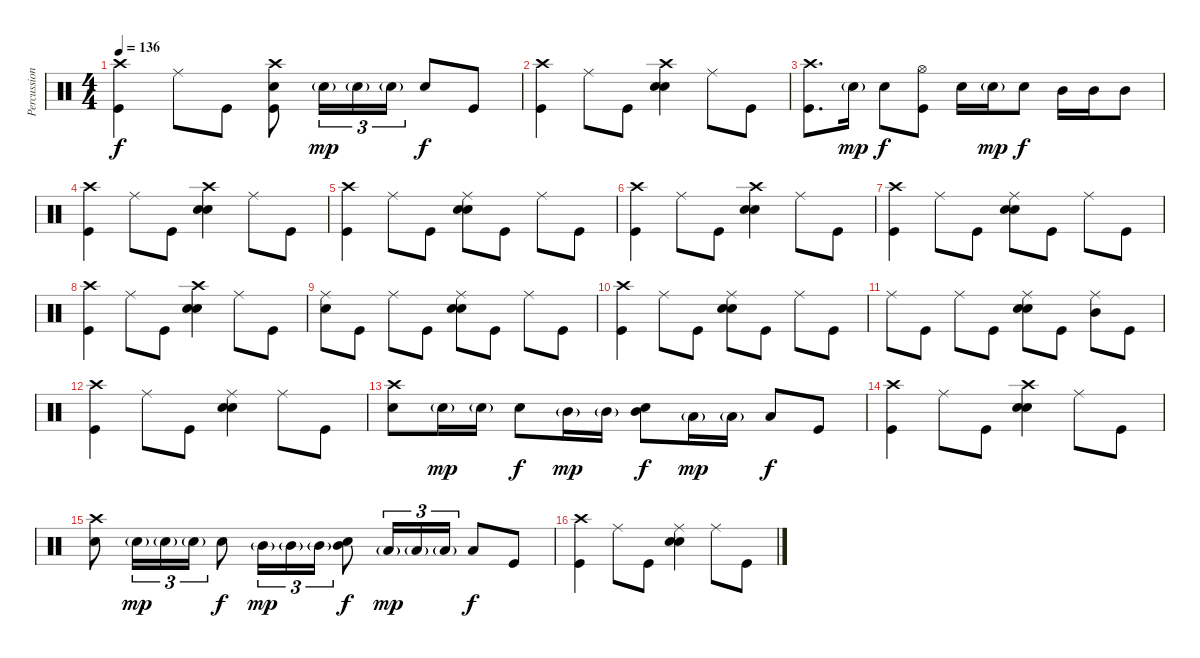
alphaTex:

\track ("Percussion" "Percussion") {instrument percussion}
\staff {score}
\articulation defaults
\ts (4 4)
\tempo 136
\clef neutral
\ks c
("Crash high (hit)" "Kick (hit)").4{dy f} "Ride (middle)".8 "Kick (hit)".8 ("Hand Clap (hit)" "Crash high (hit)" "Kick (hit)").8 "Snare (hit) 2"{g}.16{tu (3 2) dy mp} "Snare (hit) 2"{g}.16{tu (3 2)} "Snare (hit) 2"{g}.16{tu (3 2)} "Snare (hit) 2".8{dy f} "Kick (hit)".8 |
("Crash high (hit)" "Kick (hit)").4 "Ride (middle)".8 "Kick (hit)".8 ("Hand Clap (hit)" "Crash high (hit)" "Snare (hit) 2").4 "Ride (middle)".8 "Kick (hit)".8 |
("Crash high (hit)" "Kick (hit)").8{d} "Snare (hit) 2"{g}.16{dy mp} "Snare (hit) 2".8{dy f} ("Hi-Hat (open)" "Kick (hit)").8 "Hand Clap (hit)".16 "Snare (hit) 2"{g}.16{dy mp} "Snare (hit) 2".8{dy f} "Mid Tom (hit)".16 "Mid Tom (hit)".16 "Mid Tom (hit)".8 |
("Crash high (hit)" "Kick (hit)").4 "Ride (middle)".8 "Kick (hit)".8 ("Hand Clap (hit)" "Crash high (hit)" "Snare (hit) 2").4 "Ride (middle)".8 "Kick (hit)".8 |
("Crash high (hit)" "Kick (hit)").4 "Ride (middle)".8 "Kick (hit)".8 ("Hand Clap (hit)" "Ride (middle)" "Snare (hit) 2").8 "Kick (hit)".8 "Ride (middle)".8 "Kick (hit)".8 |
("Crash high (hit)" "Kick (hit)").4 "Ride (middle)".8 "Kick (hit)".8 ("Hand Clap (hit)" "Crash high (hit)" "Snare (hit) 2").4 "Ride (middle)".8 "Kick (hit)".8 |
("Crash high (hit)" "Kick (hit)").4 "Ride (middle)".8 "Kick (hit)".8 ("Hand Clap (hit)" "Ride (middle)" "Snare (hit) 2").8 "Kick (hit)".8 "Ride (middle)".8 "Kick (hit)".8 |
("Crash high (hit)" "Kick (hit)").4 "Ride (middle)".8 "Kick (hit)".8 ("Hand Clap (hit)" "Crash high (hit)" "Snare (hit) 2").4 "Ride (middle)".8 "Kick (hit)".8 |
("Ride (middle)" "Snare (hit) 2").8 "Kick (hit)".8 "Ride (middle)".8 "Kick (hit)".8 ("Hand Clap (hit)" "Ride (middle)" "Snare (hit) 2").8 "Kick (hit)".8 "Ride (middle)".8 "Kick (hit)".8 |
("Crash high (hit)" "Kick (hit)").4 "Ride (middle)".8 "Kick (hit)".8 ("Hand Clap (hit)" "Ride (middle)" "Snare (hit) 2").8 "Kick (hit)".8 "Ride (middle)".8 "Kick (hit)".8 |
"Ride (middle)".8 "Kick (hit)".8 "Ride (middle)".8 "Kick (hit)".8 ("Hand Clap (hit)" "Ride (middle)" "Snare (hit) 2").8 "Kick (hit)".8 ("Ride (middle)" "Mid Tom (hit)").8 "Kick (hit)".8 |
("Crash high (hit)" "Kick (hit)").4 "Ride (middle)".8 "Kick (hit)".8 ("Hand Clap (hit)" "Ride (middle)" "Snare (hit) 2").4 "Ride (middle)".8 "Kick (hit)".8 |
("Crash high (hit)" "Snare (hit) 2").8 "Snare (hit) 2"{g}.16{dy mp} "Snare (hit) 2"{g}.16 "Snare (hit) 2".8{dy f} "Mid Tom (hit)"{g}.16{dy mp} "Mid Tom (hit)"{g}.16 ("Hand Clap (hit)" "Mid Tom (hit)").8{dy f} "Low Floor Tom (hit)"{g}.16{dy mp} "Low Floor Tom (hit)"{g}.16 "Low Floor Tom (hit)".8{dy f} "Kick (hit)".8 |
("Crash high (hit)" "Kick (hit)").4 "Ride (middle)".8 "Kick (hit)".8 ("Hand Clap (hit)" "Crash high (hit)" "Snare (hit) 2").4 "Ride (middle)".8 "Kick (hit)".8 |
("Crash high (hit)" "Snare (hit) 2").8 "Snare (hit) 2"{g}.16{tu (3 2) dy mp} "Snare (hit) 2"{g}.16{tu (3 2)} "Snare (hit) 2"{g}.16{tu (3 2)} "Snare (hit) 2".8{dy f} "Mid Tom (hit)"{g}.16{tu (3 2) dy mp} "Mid Tom (hit)"{g}.16{tu (3 2)} "Mid Tom (hit)"{g}.16{tu (3 2)} ("Hand Clap (hit)" "Mid Tom (hit)").8{dy f} "Low Floor Tom (hit)"{g}.16{tu (3 2) dy mp} "Low Floor Tom (hit)"{g}.16{tu (3 2)} "Low Floor Tom (hit)"{g}.16{tu (3 2)} "Low Floor Tom (hit)".8{dy f} "Kick (hit)".8 |
("Crash high (hit)" "Kick (hit)").4 "Ride (middle)".8 "Kick (hit)".8 ("Hand Clap (hit)" "Ride (middle)" "Snare (hit) 2").4 "Ride (middle)".8 "Kick (hit)".8
